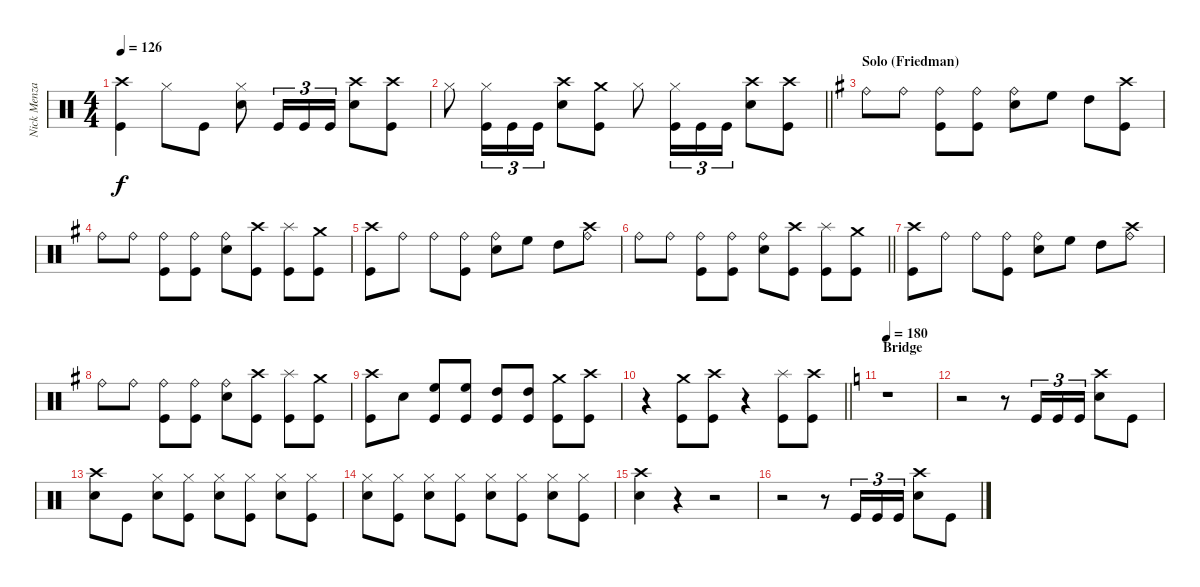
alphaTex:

\track ("Nick Menza" "Nick Menza") {instrument percussion}
\staff {score}
\articulation defaults
\ts (4 4)
\tempo 126
\clef neutral
\ks c
("Kick (hit)" "Crash high (hit)").4{dy f} "Hi-Hat (closed)".8 "Kick (hit)".8 ("Hi-Hat (closed)" "Snare (hit) 2").8 "Kick (hit)".16{tu (3 2)} "Kick (hit)".16{tu (3 2)} "Kick (hit)".16{tu (3 2)} ("Crash high (hit)" "Snare (hit) 2").8 ("Kick (hit)" "Crash high (hit)").8 |
\barLineRight lightlight "Hi-Hat (closed)".8
("Kick (hit)" "Hi-Hat (closed)").16{tu (3 2)} "Kick (hit)".16{tu (3 2)} "Kick (hit)".16{tu (3 2)} ("Crash high (hit)" "Snare (hit) 2").8 ("Kick (hit)" "Crash medium (hit)").8 "Hi-Hat (closed)".8 ("Kick (hit)" "Hi-Hat (closed)").16{tu (3 2)} "Kick (hit)".16{tu (3 2)} "Kick (hit)".16{tu (3 2)} ("Crash high (hit)" "Snare (hit) 2").8 ("Kick (hit)" "Crash high (hit)").8 |
\section ("" "Solo (Friedman)")
\ks g "Ride (bell)".8 "Ride (bell)".8
("Kick (hit)" "Ride (bell)").8 ("Kick (hit)" "Ride (bell)").8 ("Ride (bell)" "Snare (hit) 2").8 "High Floor Tom (hit)".8 "High Tom (hit)".8 ("Kick (hit)" "Crash high (hit)").8 |
"Ride (bell)".8 "Ride (bell)".8 ("Kick (hit)" "Ride (bell)").8 ("Kick (hit)" "Ride (bell)").8 ("Ride (bell)" "Snare (hit) 2").8 ("Kick (hit)" "Crash high (hit)").8 ("Kick (hit)" "Splash (hit)").8 ("Kick (hit)" "Crash medium (hit)").8 |
("Kick (hit)" "Crash high (hit)").8 "Ride (bell)".8 "Ride (bell)".8 ("Kick (hit)" "Ride (bell)").8 ("Ride (bell)" "Snare (hit) 2").8 "High Floor Tom (hit)".8 "High Tom (hit)".8 ("Ride (bell)" "Crash high (hit)").8 |
\barLineRight lightlight "Ride (bell)".8 "Ride (bell)".8
("Kick (hit)" "Ride (bell)").8 ("Kick (hit)" "Ride (bell)").8 ("Ride (bell)" "Snare (hit) 2").8 ("Kick (hit)" "Crash high (hit)").8 ("Kick (hit)" "Splash (hit)").8 ("Kick (hit)" "Crash medium (hit)").8 |
("Kick (hit)" "Crash high (hit)").8 "Ride (bell)".8 "Ride (bell)".8 ("Kick (hit)" "Ride (bell)").8 ("Ride (bell)" "Snare (hit) 2").8 "High Floor Tom (hit)".8 "High Tom (hit)".8 ("Ride (bell)" "Crash high (hit)").8 |
"Ride (bell)".8 "Ride (bell)".8 ("Kick (hit)" "Ride (bell)").8 ("Kick (hit)" "Ride (bell)").8 ("Ride (bell)" "Snare (hit) 2").8 ("Kick (hit)" "Crash high (hit)").8 ("Kick (hit)" "Splash (hit)").8 ("Kick (hit)" "Crash medium (hit)").8 |
("Kick (hit)" "Crash high (hit)").8 "Snare (hit) 2".8 ("Kick (hit)" "High Floor Tom (hit)").8 ("Kick (hit)" "High Floor Tom (hit)").8 ("Kick (hit)" "High Tom (hit)").8 ("Kick (hit)" "High Tom (hit)").8 ("Kick (hit)" "Crash medium (hit)").8 ("Kick (hit)" "Crash high (hit)").8 |
\barLineRight lightlight
r.4 ("Kick (hit)" "Crash medium (hit)").8 ("Kick (hit)" "Crash high (hit)").8 r.4 ("Kick (hit)" "Splash (hit)").8 ("Kick (hit)" "Crash high (hit)").8 |
\section ("" "Bridge")
\tempo 180
\ks c
r.1 |
r.2 r.8 "Kick (hit)".16{tu (3 2)} "Kick (hit)".16{tu (3 2)} "Kick (hit)".16{tu (3 2)} ("Crash high (hit)" "Snare (hit) 2").8 "Kick (hit)".8 |
("Crash high (hit)" "Snare (hit) 2").8 "Kick (hit)".8 ("Hi-Hat (closed)" "Snare (hit) 2").8 ("Kick (hit)" "Hi-Hat (closed)").8 ("Hi-Hat (closed)" "Snare (hit) 2").8 ("Kick (hit)" "Hi-Hat (closed)").8 ("Hi-Hat (closed)" "Snare (hit) 2").8 ("Kick (hit)" "Hi-Hat (closed)").8 |
("Hi-Hat (closed)" "Snare (hit) 2").8 ("Kick (hit)" "Hi-Hat (closed)").8 ("Hi-Hat (closed)" "Snare (hit) 2").8 ("Kick (hit)" "Hi-Hat (closed)").8 ("Hi-Hat (closed)" "Snare (hit) 2").8 ("Kick (hit)" "Hi-Hat (closed)").8 ("Hi-Hat (closed)" "Snare (hit) 2").8 ("Kick (hit)" "Hi-Hat (closed)").8 |
("Snare (hit) 2" "Crash high (hit)").4 r.4 r.2 |
r.2 r.8 "Kick (hit)".16{tu (3 2)} "Kick (hit)".16{tu (3 2)} "Kick (hit)".16{tu (3 2)} ("Crash high (hit)" "Snare (hit) 2").8 "Kick (hit)".8
